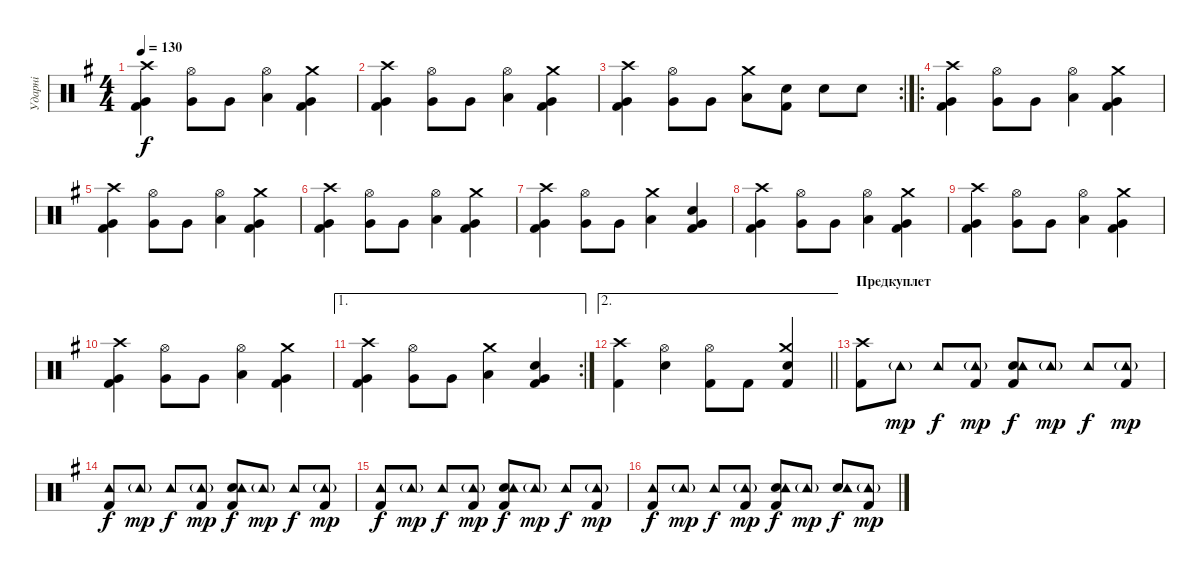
\track ("Ударні" "Ударні") {instrument percussion}
\staff {score}
\articulation defaults
\ts (4 4)
\tempo 130
\clef neutral
\ks eminor
("Kick (hit) 2" "Very Low Tom (hit)" "Crash high (hit)").4{dy f} ("Very Low Tom (hit)" "Hi-Hat (open)").8 "Very Low Tom (hit)".8 ("Low Tom (hit)" "Hi-Hat (open)").4 ("Kick (hit) 2" "Very Low Tom (hit)" "Crash medium (hit)").4 |
("Kick (hit) 2" "Very Low Tom (hit)" "Crash high (hit)").4 ("Very Low Tom (hit)" "Hi-Hat (open)").8 "Very Low Tom (hit)".8 ("Low Tom (hit)" "Hi-Hat (open)").4 ("Kick (hit) 2" "Very Low Tom (hit)" "Crash medium (hit)").4 |
\rc 2
("Kick (hit) 2" "Very Low Tom (hit)" "Crash high (hit)").4 ("Very Low Tom (hit)" "Hi-Hat (open)").8 "Very Low Tom (hit)".8 ("Low Tom (hit)" "Crash medium (hit)").8 ("Kick (hit) 2" "Snare (hit) 2").8 "Snare (hit) 2".8 "Snare (hit) 2".8 |
\ro
("Kick (hit) 2" "Very Low Tom (hit)" "Crash high (hit)").4 ("Very Low Tom (hit)" "Hi-Hat (open)").8 "Very Low Tom (hit)".8 ("Low Tom (hit)" "Hi-Hat (open)").4 ("Kick (hit) 2" "Very Low Tom (hit)" "Crash medium (hit)").4 |
("Kick (hit) 2" "Very Low Tom (hit)" "Crash high (hit)").4 ("Very Low Tom (hit)" "Hi-Hat (open)").8 "Very Low Tom (hit)".8 ("Low Tom (hit)" "Hi-Hat (open)").4 ("Kick (hit) 2" "Very Low Tom (hit)" "Crash medium (hit)").4 |
("Kick (hit) 2" "Very Low Tom (hit)" "Crash high (hit)").4 ("Very Low Tom (hit)" "Hi-Hat (open)").8 "Very Low Tom (hit)".8 ("Low Tom (hit)" "Hi-Hat (open)").4 ("Kick (hit) 2" "Very Low Tom (hit)" "Crash medium (hit)").4 |
("Kick (hit) 2" "Very Low Tom (hit)" "Crash high (hit)").4 ("Very Low Tom (hit)" "Hi-Hat (open)").8 "Very Low Tom (hit)".8 ("Low Tom (hit)" "Crash medium (hit)").4 ("Kick (hit) 2" "Snare (hit) 2" "Very Low Tom (hit)").4 |
("Kick (hit) 2" "Very Low Tom (hit)" "Crash high (hit)").4 ("Very Low Tom (hit)" "Hi-Hat (open)").8 "Very Low Tom (hit)".8 ("Low Tom (hit)" "Hi-Hat (open)").4 ("Kick (hit) 2" "Very Low Tom (hit)" "Crash medium (hit)").4 |
("Kick (hit) 2" "Very Low Tom (hit)" "Crash high (hit)").4 ("Very Low Tom (hit)" "Hi-Hat (open)").8 "Very Low Tom (hit)".8 ("Low Tom (hit)" "Hi-Hat (open)").4 ("Kick (hit) 2" "Very Low Tom (hit)" "Crash medium (hit)").4 |
("Kick (hit) 2" "Very Low Tom (hit)" "Crash high (hit)").4 ("Very Low Tom (hit)" "Hi-Hat (open)").8 "Very Low Tom (hit)".8 ("Low Tom (hit)" "Hi-Hat (open)").4 ("Kick (hit) 2" "Very Low Tom (hit)" "Crash medium (hit)").4 |
\ae 1
\rc 2
("Kick (hit) 2" "Very Low Tom (hit)" "Crash high (hit)").4 ("Very Low Tom (hit)" "Hi-Hat (open)").8 "Very Low Tom (hit)".8 ("Low Tom (hit)" "Crash medium (hit)").4 ("Kick (hit) 2" "Snare (hit) 2" "Very Low Tom (hit)").4 |
\ae 2
\barLineRight lightlight
("Kick (hit) 2" "Crash high (hit)").4 ("Snare (hit) 2" "Hi-Hat (open)").4 ("Kick (hit) 2" "Hi-Hat (open)").8 "Kick (hit) 2".8 ("Kick (hit) 2" "Snare (hit) 2" "Crash medium (hit)").4 |
\section ("" "Предкуплет")
("Kick (hit) 2" "Crash high (hit)").8 "Tambourine (hit)"{g}.8{dy mp} "Tambourine (hit)".8{dy f} ("Kick (hit) 2" "Tambourine (hit)"{g}).8{dy mp} ("Kick (hit) 2" "Snare (hit) 2" "Tambourine (hit)").8{dy f} "Tambourine (hit)"{g}.8{dy mp} "Tambourine (hit)".8{dy f} ("Kick (hit) 2" "Tambourine (hit)"{g}).8{dy mp} |
("Kick (hit) 2" "Tambourine (hit)").8{dy f} "Tambourine (hit)"{g}.8{dy mp} "Tambourine (hit)".8{dy f} ("Kick (hit) 2" "Tambourine (hit)"{g}).8{dy mp} ("Kick (hit) 2" "Snare (hit) 2" "Tambourine (hit)").8{dy f} "Tambourine (hit)"{g}.8{dy mp} "Tambourine (hit)".8{dy f} ("Kick (hit) 2" "Tambourine (hit)"{g}).8{dy mp} |
("Kick (hit) 2" "Tambourine (hit)").8{dy f} "Tambourine (hit)"{g}.8{dy mp} "Tambourine (hit)".8{dy f} ("Kick (hit) 2" "Tambourine (hit)"{g}).8{dy mp} ("Kick (hit) 2" "Snare (hit) 2" "Tambourine (hit)").8{dy f} "Tambourine (hit)"{g}.8{dy mp} "Tambourine (hit)".8{dy f} ("Kick (hit) 2" "Tambourine (hit)"{g}).8{dy mp} |
("Kick (hit) 2" "Tambourine (hit)").8{dy f} "Tambourine (hit)"{g}.8{dy mp} "Tambourine (hit)".8{dy f} ("Kick (hit) 2" "Tambourine (hit)"{g}).8{dy mp} ("Kick (hit) 2" "Snare (hit) 2" "Tambourine (hit)").8{dy f} "Tambourine (hit)"{g}.8{dy mp} ("Snare (hit) 2" "Tambourine (hit)").8{dy f} ("Kick (hit) 2" "Tambourine (hit)"{g}).8{dy mp}
